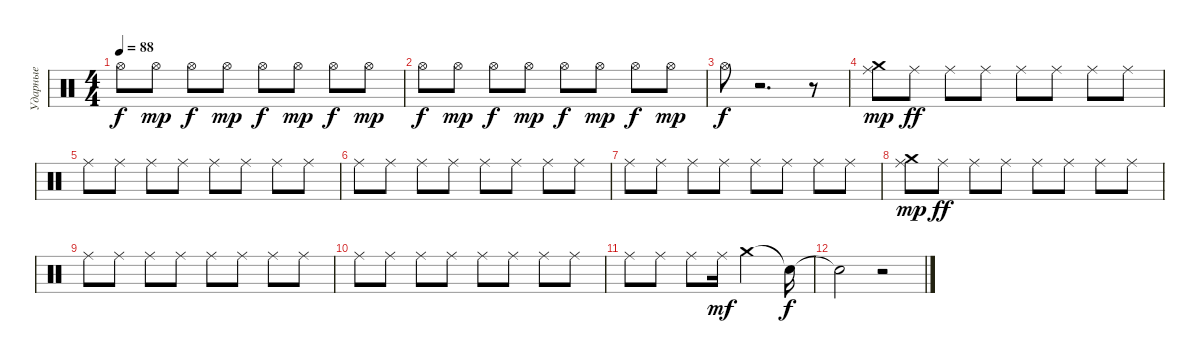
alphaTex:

\track ("Ударные" "Ударные") {instrument percussion}
\staff {score}
\articulation defaults
\ts (4 4)
\tempo 88
\clef neutral
\ks c "Hi-Hat (open)".8{dy f} "Hi-Hat (open)".8{dy mp} "Hi-Hat (open)".8{dy f} "Hi-Hat (open)".8{dy mp} "Hi-Hat (open)".8{dy f} "Hi-Hat (open)".8{dy mp} "Hi-Hat (open)".8{dy f} "Hi-Hat (open)".8{dy mp}
|
"Hi-Hat (open)".8{dy f} "Hi-Hat (open)".8{dy mp} "Hi-Hat (open)".8{dy f} "Hi-Hat (open)".8{dy mp} "Hi-Hat (open)".8{dy f} "Hi-Hat (open)".8{dy mp} "Hi-Hat (open)".8{dy f} "Hi-Hat (open)".8{dy mp} |
"Hi-Hat (open)".8{dy f} r.2{d} r.8 |
("Ride (middle)" "Crash medium (hit)").8{dy mp} "Ride (middle)".8{dy ff} "Ride (middle)".8 "Ride (middle)".8 "Ride (middle)".8 "Ride (middle)".8 "Ride (middle)".8 "Ride (middle)".8 |
"Ride (middle)".8 "Ride (middle)".8 "Ride (middle)".8 "Ride (middle)".8 "Ride (middle)".8 "Ride (middle)".8 "Ride (middle)".8 "Ride (middle)".8 |
"Ride (middle)".8 "Ride (middle)".8 "Ride (middle)".8 "Ride (middle)".8 "Ride (middle)".8 "Ride (middle)".8 "Ride (middle)".8 "Ride (middle)".8 |
"Ride (middle)".8 "Ride (middle)".8 "Ride (middle)".8 "Ride (middle)".8 "Ride (middle)".8 "Ride (middle)".8 "Ride (middle)".8 "Ride (middle)".8 |
("Ride (middle)" "Crash medium (hit)").8{dy mp} "Ride (middle)".8{dy ff} "Ride (middle)".8 "Ride (middle)".8 "Ride (middle)".8 "Ride (middle)".8 "Ride (middle)".8 "Ride (middle)".8 |
"Ride (middle)".8 "Ride (middle)".8 "Ride (middle)".8 "Ride (middle)".8 "Ride (middle)".8 "Ride (middle)".8 "Ride (middle)".8 "Ride (middle)".8 |
"Ride (middle)".8 "Ride (middle)".8 "Ride (middle)".8 "Ride (middle)".8 "Ride (middle)".8 "Ride (middle)".8 "Ride (middle)".8 "Ride (middle)".8 |
"Ride (middle)".8 "Ride (middle)".8 "Ride (middle)".8 "Ride (middle)".16{dy mf} "Crash medium (hit)".2 "Snare (hit)"{t}.16{dy f} |
"Snare (hit)"{t}.2 r.2
